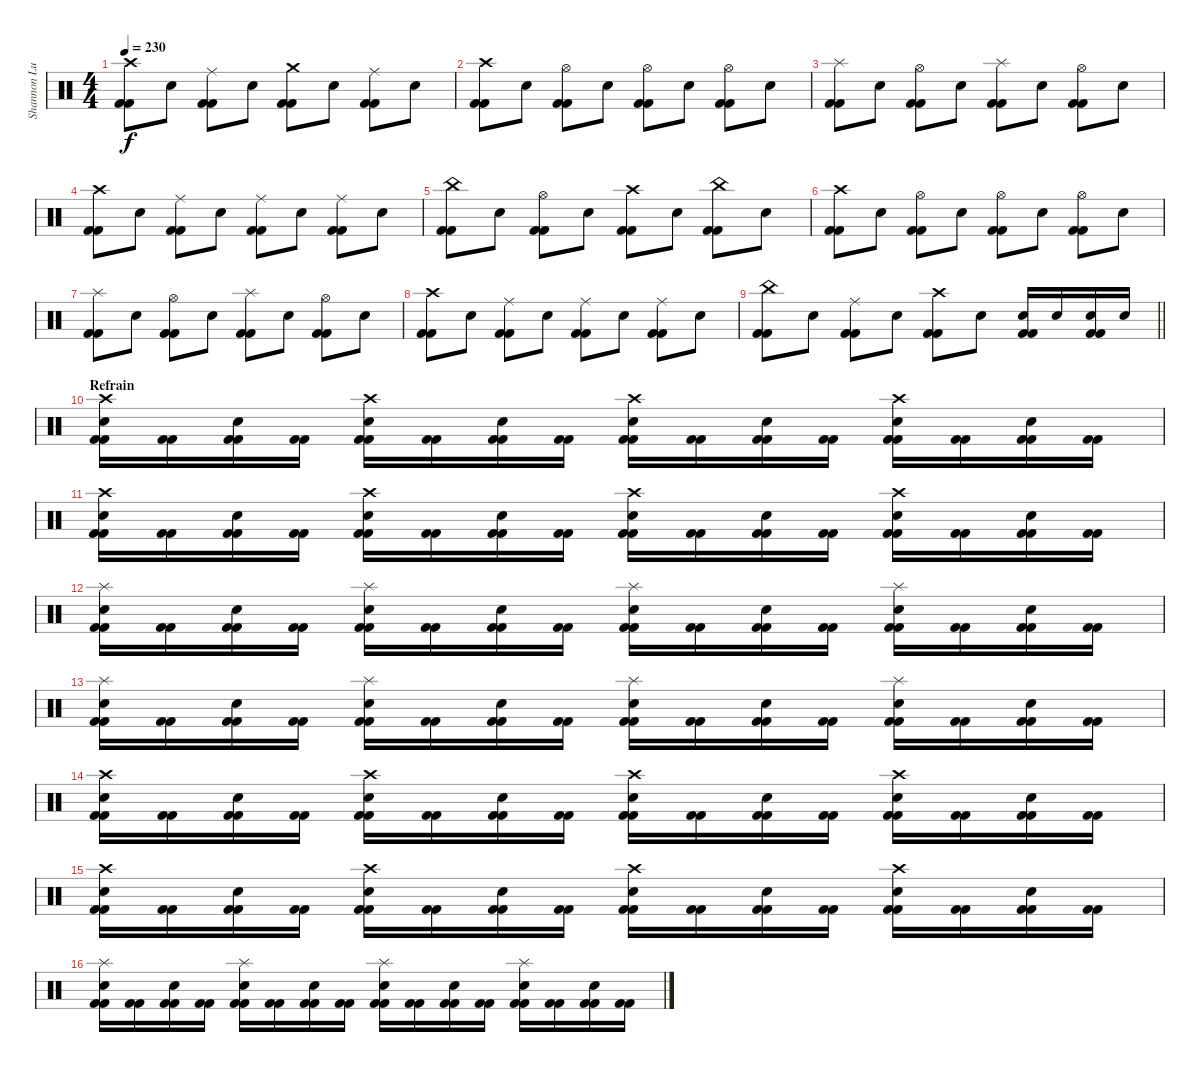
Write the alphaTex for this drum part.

\track ("Shannon Lucas" "Shannon Lu") {instrument percussion}
\staff {score}
\articulation defaults
\ts (4 4)
\tempo 230
\clef neutral
\ks c
("Crash high (hit)" "Kick (hit) 2" "Kick (hit) 2").8{dy f} "Electric Snare (hit)".8 ("Ride (middle)" "Kick (hit) 2" "Kick (hit) 2").8 "Electric Snare (hit)".8 ("Crash medium (hit)" "Kick (hit) 2" "Kick (hit) 2").8 "Electric Snare (hit)".8 ("Ride (middle)" "Kick (hit) 2" "Kick (hit) 2").8 "Electric Snare (hit)".8 |
("Crash high (hit)" "Kick (hit) 2" "Kick (hit) 2").8 "Electric Snare (hit)".8 ("Hi-Hat (open)" "Kick (hit) 2" "Kick (hit) 2").8 "Electric Snare (hit)".8 ("Hi-Hat (open)" "Kick (hit) 2" "Kick (hit) 2").8 "Electric Snare (hit)".8 ("Hi-Hat (open)" "Kick (hit) 2" "Kick (hit) 2").8 "Electric Snare (hit)".8 |
("Splash (hit)" "Kick (hit) 2" "Kick (hit) 2").8 "Electric Snare (hit)".8 ("Hi-Hat (open)" "Kick (hit) 2" "Kick (hit) 2").8 "Electric Snare (hit)".8 ("Splash (hit)" "Kick (hit) 2" "Kick (hit) 2").8 "Electric Snare (hit)".8 ("Hi-Hat (open)" "Kick (hit) 2" "Kick (hit) 2").8 "Electric Snare (hit)".8 |
("Crash high (hit)" "Kick (hit) 2" "Kick (hit) 2").8 "Electric Snare (hit)".8 ("Ride (middle)" "Kick (hit) 2" "Kick (hit) 2").8 "Electric Snare (hit)".8 ("Ride (middle)" "Kick (hit) 2" "Kick (hit) 2").8 "Electric Snare (hit)".8 ("Ride (middle)" "Kick (hit) 2" "Kick (hit) 2").8 "Electric Snare (hit)".8 |
("China (hit)" "Kick (hit) 2" "Kick (hit) 2").8 "Electric Snare (hit)".8 ("Hi-Hat (open)" "Kick (hit) 2" "Kick (hit) 2").8 "Electric Snare (hit)".8 ("Crash high (hit)" "Kick (hit) 2" "Kick (hit) 2").8 "Electric Snare (hit)".8 ("China (hit)" "Kick (hit) 2" "Kick (hit) 2").8 "Electric Snare (hit)".8 |
("Crash high (hit)" "Kick (hit) 2" "Kick (hit) 2").8 "Electric Snare (hit)".8 ("Hi-Hat (open)" "Kick (hit) 2" "Kick (hit) 2").8 "Electric Snare (hit)".8 ("Hi-Hat (open)" "Kick (hit) 2" "Kick (hit) 2").8 "Electric Snare (hit)".8 ("Hi-Hat (open)" "Kick (hit) 2" "Kick (hit) 2").8 "Electric Snare (hit)".8 |
("Splash (hit)" "Kick (hit) 2" "Kick (hit) 2").8 "Electric Snare (hit)".8 ("Hi-Hat (open)" "Kick (hit) 2" "Kick (hit) 2").8 "Electric Snare (hit)".8 ("Splash (hit)" "Kick (hit) 2" "Kick (hit) 2").8 "Electric Snare (hit)".8 ("Hi-Hat (open)" "Kick (hit) 2" "Kick (hit) 2").8 "Electric Snare (hit)".8 |
("Crash high (hit)" "Kick (hit) 2" "Kick (hit) 2").8 "Electric Snare (hit)".8 ("Ride (middle)" "Kick (hit) 2" "Kick (hit) 2").8 "Electric Snare (hit)".8 ("Ride (middle)" "Kick (hit) 2" "Kick (hit) 2").8 "Electric Snare (hit)".8 ("Ride (middle)" "Kick (hit) 2" "Kick (hit) 2").8 "Electric Snare (hit)".8 |
\barLineRight lightlight
("China (hit)" "Kick (hit) 2" "Kick (hit) 2").8 "Electric Snare (hit)".8 ("Ride (middle)" "Kick (hit) 2" "Kick (hit) 2").8 "Electric Snare (hit)".8 ("Crash high (hit)" "Kick (hit) 2" "Kick (hit) 2").8 "Electric Snare (hit)".8 ("Kick (hit) 2" "Electric Snare (hit)" "Kick (hit) 2").16 "Electric Snare (hit)".16 ("Kick (hit) 2" "Electric Snare (hit)" "Kick (hit) 2").16 "Electric Snare (hit)".16 |
\section ("" "Refrain")
("Crash high (hit)" "Electric Snare (hit)" "Kick (hit) 2" "Kick (hit) 2").16 ("Kick (hit) 2" "Kick (hit) 2").16 ("Electric Snare (hit)" "Kick (hit) 2" "Kick (hit) 2").16 ("Kick (hit) 2" "Kick (hit) 2").16 ("Crash high (hit)" "Electric Snare (hit)" "Kick (hit) 2" "Kick (hit) 2").16 ("Kick (hit) 2" "Kick (hit) 2").16 ("Electric Snare (hit)" "Kick (hit) 2" "Kick (hit) 2").16 ("Kick (hit) 2" "Kick (hit) 2").16 ("Crash high (hit)" "Electric Snare (hit)" "Kick (hit) 2" "Kick (hit) 2").16 ("Kick (hit) 2" "Kick (hit) 2").16 ("Electric Snare (hit)" "Kick (hit) 2" "Kick (hit) 2").16 ("Kick (hit) 2" "Kick (hit) 2").16 ("Crash high (hit)" "Electric Snare (hit)" "Kick (hit) 2" "Kick (hit) 2").16 ("Kick (hit) 2" "Kick (hit) 2").16 ("Electric Snare (hit)" "Kick (hit) 2" "Kick (hit) 2").16 ("Kick (hit) 2" "Kick (hit) 2").16 |
("Crash high (hit)" "Electric Snare (hit)" "Kick (hit) 2" "Kick (hit) 2").16 ("Kick (hit) 2" "Kick (hit) 2").16 ("Electric Snare (hit)" "Kick (hit) 2" "Kick (hit) 2").16 ("Kick (hit) 2" "Kick (hit) 2").16 ("Crash high (hit)" "Electric Snare (hit)" "Kick (hit) 2" "Kick (hit) 2").16 ("Kick (hit) 2" "Kick (hit) 2").16 ("Electric Snare (hit)" "Kick (hit) 2" "Kick (hit) 2").16 ("Kick (hit) 2" "Kick (hit) 2").16 ("Crash high (hit)" "Electric Snare (hit)" "Kick (hit) 2" "Kick (hit) 2").16 ("Kick (hit) 2" "Kick (hit) 2").16 ("Electric Snare (hit)" "Kick (hit) 2" "Kick (hit) 2").16 ("Kick (hit) 2" "Kick (hit) 2").16 ("Crash high (hit)" "Electric Snare (hit)" "Kick (hit) 2" "Kick (hit) 2").16 ("Kick (hit) 2" "Kick (hit) 2").16 ("Electric Snare (hit)" "Kick (hit) 2" "Kick (hit) 2").16 ("Kick (hit) 2" "Kick (hit) 2").16 |
("Splash (hit)" "Electric Snare (hit)" "Kick (hit) 2" "Kick (hit) 2").16 ("Kick (hit) 2" "Kick (hit) 2").16 ("Electric Snare (hit)" "Kick (hit) 2" "Kick (hit) 2").16 ("Kick (hit) 2" "Kick (hit) 2").16 ("Splash (hit)" "Electric Snare (hit)" "Kick (hit) 2" "Kick (hit) 2").16 ("Kick (hit) 2" "Kick (hit) 2").16 ("Electric Snare (hit)" "Kick (hit) 2" "Kick (hit) 2").16 ("Kick (hit) 2" "Kick (hit) 2").16 ("Splash (hit)" "Electric Snare (hit)" "Kick (hit) 2" "Kick (hit) 2").16 ("Kick (hit) 2" "Kick (hit) 2").16 ("Electric Snare (hit)" "Kick (hit) 2" "Kick (hit) 2").16 ("Kick (hit) 2" "Kick (hit) 2").16 ("Splash (hit)" "Electric Snare (hit)" "Kick (hit) 2" "Kick (hit) 2").16 ("Kick (hit) 2" "Kick (hit) 2").16 ("Electric Snare (hit)" "Kick (hit) 2" "Kick (hit) 2").16 ("Kick (hit) 2" "Kick (hit) 2").16 |
("Splash (hit)" "Electric Snare (hit)" "Kick (hit) 2" "Kick (hit) 2").16 ("Kick (hit) 2" "Kick (hit) 2").16 ("Electric Snare (hit)" "Kick (hit) 2" "Kick (hit) 2").16 ("Kick (hit) 2" "Kick (hit) 2").16 ("Splash (hit)" "Electric Snare (hit)" "Kick (hit) 2" "Kick (hit) 2").16 ("Kick (hit) 2" "Kick (hit) 2").16 ("Electric Snare (hit)" "Kick (hit) 2" "Kick (hit) 2").16 ("Kick (hit) 2" "Kick (hit) 2").16 ("Splash (hit)" "Electric Snare (hit)" "Kick (hit) 2" "Kick (hit) 2").16 ("Kick (hit) 2" "Kick (hit) 2").16 ("Electric Snare (hit)" "Kick (hit) 2" "Kick (hit) 2").16 ("Kick (hit) 2" "Kick (hit) 2").16 ("Splash (hit)" "Electric Snare (hit)" "Kick (hit) 2" "Kick (hit) 2").16 ("Kick (hit) 2" "Kick (hit) 2").16 ("Electric Snare (hit)" "Kick (hit) 2" "Kick (hit) 2").16 ("Kick (hit) 2" "Kick (hit) 2").16 |
("Crash high (hit)" "Electric Snare (hit)" "Kick (hit) 2" "Kick (hit) 2").16 ("Kick (hit) 2" "Kick (hit) 2").16 ("Electric Snare (hit)" "Kick (hit) 2" "Kick (hit) 2").16 ("Kick (hit) 2" "Kick (hit) 2").16 ("Crash high (hit)" "Electric Snare (hit)" "Kick (hit) 2" "Kick (hit) 2").16 ("Kick (hit) 2" "Kick (hit) 2").16 ("Electric Snare (hit)" "Kick (hit) 2" "Kick (hit) 2").16 ("Kick (hit) 2" "Kick (hit) 2").16 ("Crash high (hit)" "Electric Snare (hit)" "Kick (hit) 2" "Kick (hit) 2").16 ("Kick (hit) 2" "Kick (hit) 2").16 ("Electric Snare (hit)" "Kick (hit) 2" "Kick (hit) 2").16 ("Kick (hit) 2" "Kick (hit) 2").16 ("Crash high (hit)" "Electric Snare (hit)" "Kick (hit) 2" "Kick (hit) 2").16 ("Kick (hit) 2" "Kick (hit) 2").16 ("Electric Snare (hit)" "Kick (hit) 2" "Kick (hit) 2").16 ("Kick (hit) 2" "Kick (hit) 2").16 |
("Crash high (hit)" "Electric Snare (hit)" "Kick (hit) 2" "Kick (hit) 2").16 ("Kick (hit) 2" "Kick (hit) 2").16 ("Electric Snare (hit)" "Kick (hit) 2" "Kick (hit) 2").16 ("Kick (hit) 2" "Kick (hit) 2").16 ("Crash high (hit)" "Electric Snare (hit)" "Kick (hit) 2" "Kick (hit) 2").16 ("Kick (hit) 2" "Kick (hit) 2").16 ("Electric Snare (hit)" "Kick (hit) 2" "Kick (hit) 2").16 ("Kick (hit) 2" "Kick (hit) 2").16 ("Crash high (hit)" "Electric Snare (hit)" "Kick (hit) 2" "Kick (hit) 2").16 ("Kick (hit) 2" "Kick (hit) 2").16 ("Electric Snare (hit)" "Kick (hit) 2" "Kick (hit) 2").16 ("Kick (hit) 2" "Kick (hit) 2").16 ("Crash high (hit)" "Electric Snare (hit)" "Kick (hit) 2" "Kick (hit) 2").16 ("Kick (hit) 2" "Kick (hit) 2").16 ("Electric Snare (hit)" "Kick (hit) 2" "Kick (hit) 2").16 ("Kick (hit) 2" "Kick (hit) 2").16 |
("Splash (hit)" "Electric Snare (hit)" "Kick (hit) 2" "Kick (hit) 2").16 ("Kick (hit) 2" "Kick (hit) 2").16 ("Electric Snare (hit)" "Kick (hit) 2" "Kick (hit) 2").16 ("Kick (hit) 2" "Kick (hit) 2").16 ("Splash (hit)" "Electric Snare (hit)" "Kick (hit) 2" "Kick (hit) 2").16 ("Kick (hit) 2" "Kick (hit) 2").16 ("Electric Snare (hit)" "Kick (hit) 2" "Kick (hit) 2").16 ("Kick (hit) 2" "Kick (hit) 2").16 ("Splash (hit)" "Electric Snare (hit)" "Kick (hit) 2" "Kick (hit) 2").16 ("Kick (hit) 2" "Kick (hit) 2").16 ("Electric Snare (hit)" "Kick (hit) 2" "Kick (hit) 2").16 ("Kick (hit) 2" "Kick (hit) 2").16 ("Splash (hit)" "Electric Snare (hit)" "Kick (hit) 2" "Kick (hit) 2").16 ("Kick (hit) 2" "Kick (hit) 2").16 ("Electric Snare (hit)" "Kick (hit) 2" "Kick (hit) 2").16 ("Kick (hit) 2" "Kick (hit) 2").16
